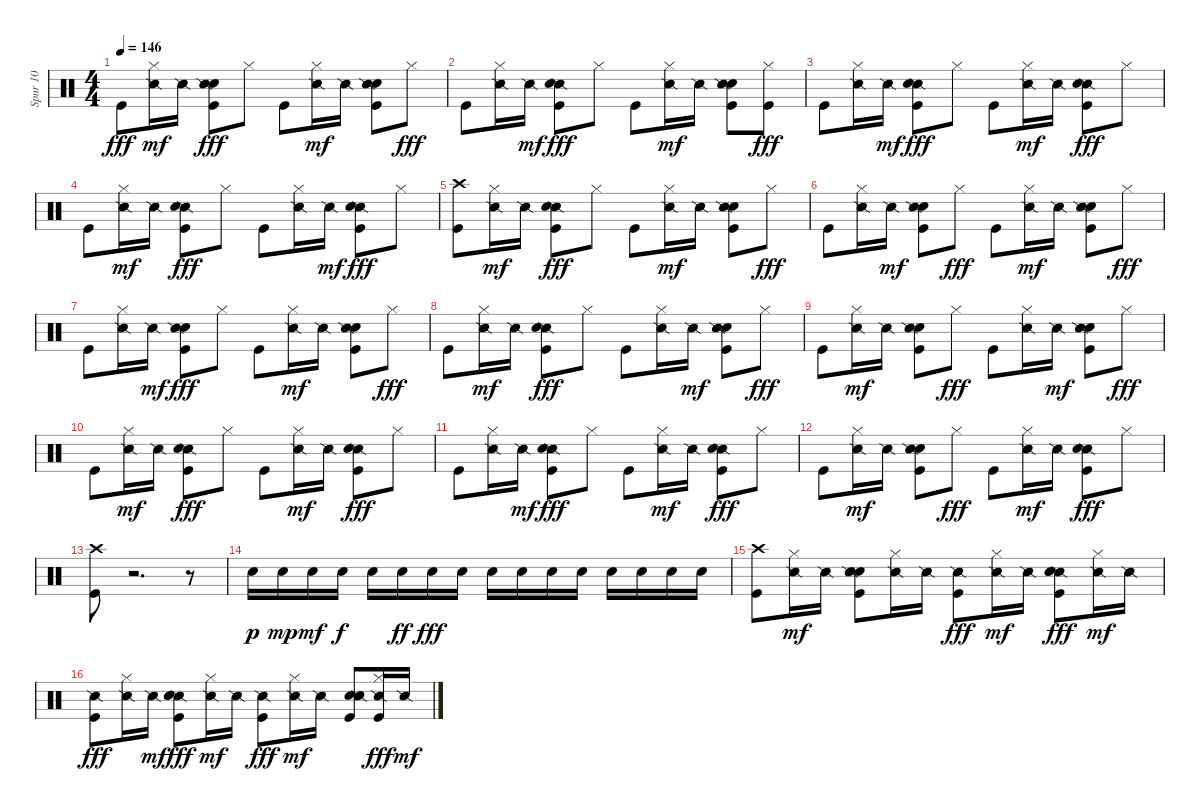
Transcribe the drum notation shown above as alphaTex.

\track ("Spur 10" "Spur 10") {instrument percussion}
\staff {score}
\articulation defaults
\ts (4 4)
\tempo 146
\clef neutral
\ks c "Kick (hit)".8{dy fff}
("Hi-Hat (closed)" "Snare (side stick) 2").16{dy mf} "Snare (side stick) 2".16 ("Hand Clap (hit)" "Snare (side stick) 2" "Kick (hit)").8{dy fff} "Hi-Hat (closed)".8 "Kick (hit)".8 ("Hi-Hat (closed)" "Snare (side stick) 2").16{dy mf} "Snare (side stick) 2".16 ("Hand Clap (hit)" "Kick (hit)" "Snare (side stick) 2").8 "Hi-Hat (closed)".8{dy fff} |
"Kick (hit)".8 ("Snare (side stick) 2" "Hi-Hat (closed)").16 "Snare (side stick) 2".16{dy mf} ("Snare (side stick) 2" "Kick (hit)" "Hand Clap (hit)").8{dy fff} "Hi-Hat (closed)".8 "Kick (hit)".8 ("Hi-Hat (closed)" "Snare (side stick) 2").16{dy mf} "Snare (side stick) 2".16 ("Hand Clap (hit)" "Kick (hit)" "Snare (side stick) 2").8 ("Hi-Hat (closed)" "Kick (hit)").8{dy fff} |
"Kick (hit)".8 ("Snare (side stick) 2" "Hi-Hat (closed)").16 "Snare (side stick) 2".16{dy mf} ("Snare (side stick) 2" "Kick (hit)" "Hand Clap (hit)").8{dy fff} "Hi-Hat (closed)".8 "Kick (hit)".8 ("Hi-Hat (closed)" "Snare (side stick) 2").16{dy mf} "Snare (side stick) 2".16 ("Snare (side stick) 2" "Hand Clap (hit)" "Kick (hit)").8{dy fff} "Hi-Hat (closed)".8 |
"Kick (hit)".8 ("Hi-Hat (closed)" "Snare (side stick) 2").16{dy mf} "Snare (side stick) 2".16 ("Snare (side stick) 2" "Hand Clap (hit)" "Kick (hit)").8{dy fff} "Hi-Hat (closed)".8 "Kick (hit)".8 ("Snare (side stick) 2" "Hi-Hat (closed)").16 "Snare (side stick) 2".16{dy mf} ("Kick (hit)" "Snare (side stick) 2" "Hand Clap (hit)").8{dy fff} "Hi-Hat (closed)".8 |
("Crash high (hit)" "Kick (hit)").8 ("Hi-Hat (closed)" "Snare (side stick) 2").16{dy mf} "Snare (side stick) 2".16 ("Snare (side stick) 2" "Hand Clap (hit)" "Kick (hit)").8{dy fff} "Hi-Hat (closed)".8 "Kick (hit)".8 ("Hi-Hat (closed)" "Snare (side stick) 2").16{dy mf} "Snare (side stick) 2".16 ("Kick (hit)" "Hand Clap (hit)" "Snare (side stick) 2").8 "Hi-Hat (closed)".8{dy fff} |
"Kick (hit)".8 ("Snare (side stick) 2" "Hi-Hat (closed)").16 "Snare (side stick) 2".16{dy mf} ("Kick (hit)" "Hand Clap (hit)" "Snare (side stick) 2").8 "Hi-Hat (closed)".8{dy fff} "Kick (hit)".8 ("Hi-Hat (closed)" "Snare (side stick) 2").16{dy mf} "Snare (side stick) 2".16 ("Hand Clap (hit)" "Kick (hit)" "Snare (side stick) 2").8 "Hi-Hat (closed)".8{dy fff} |
"Kick (hit)".8 ("Snare (side stick) 2" "Hi-Hat (closed)").16 "Snare (side stick) 2".16{dy mf} ("Hand Clap (hit)" "Snare (side stick) 2" "Kick (hit)").8{dy fff} "Hi-Hat (closed)".8 "Kick (hit)".8 ("Hi-Hat (closed)" "Snare (side stick) 2").16{dy mf} "Snare (side stick) 2".16 ("Hand Clap (hit)" "Kick (hit)" "Snare (side stick) 2").8 "Hi-Hat (closed)".8{dy fff} |
"Kick (hit)".8 ("Hi-Hat (closed)" "Snare (side stick) 2").16{dy mf} "Snare (side stick) 2".16 ("Snare (side stick) 2" "Hand Clap (hit)" "Kick (hit)").8{dy fff} "Hi-Hat (closed)".8 "Kick (hit)".8 ("Snare (side stick) 2" "Hi-Hat (closed)").16 "Snare (side stick) 2".16{dy mf} ("Hand Clap (hit)" "Kick (hit)" "Snare (side stick) 2").8 "Hi-Hat (closed)".8{dy fff} |
"Kick (hit)".8 ("Hi-Hat (closed)" "Snare (side stick) 2").16{dy mf} "Snare (side stick) 2".16 ("Hand Clap (hit)" "Kick (hit)" "Snare (side stick) 2").8 "Hi-Hat (closed)".8{dy fff} "Kick (hit)".8 ("Snare (side stick) 2" "Hi-Hat (closed)").16 "Snare (side stick) 2".16{dy mf} ("Kick (hit)" "Hand Clap (hit)" "Snare (side stick) 2").8 "Hi-Hat (closed)".8{dy fff} |
"Kick (hit)".8 ("Hi-Hat (closed)" "Snare (side stick) 2").16{dy mf} "Snare (side stick) 2".16 ("Kick (hit)" "Snare (side stick) 2" "Hand Clap (hit)").8{dy fff} "Hi-Hat (closed)".8 "Kick (hit)".8 ("Hi-Hat (closed)" "Snare (side stick) 2").16{dy mf} "Snare (side stick) 2".16 ("Snare (side stick) 2" "Kick (hit)" "Hand Clap (hit)").8{dy fff} "Hi-Hat (closed)".8 |
"Kick (hit)".8 ("Snare (side stick) 2" "Hi-Hat (closed)").16 "Snare (side stick) 2".16{dy mf} ("Snare (side stick) 2" "Kick (hit)" "Hand Clap (hit)").8{dy fff} "Hi-Hat (closed)".8 "Kick (hit)".8 ("Hi-Hat (closed)" "Snare (side stick) 2").16{dy mf} "Snare (side stick) 2".16 ("Kick (hit)" "Snare (side stick) 2" "Hand Clap (hit)").8{dy fff} "Hi-Hat (closed)".8 |
"Kick (hit)".8 ("Hi-Hat (closed)" "Snare (side stick) 2").16{dy mf} "Snare (side stick) 2".16 ("Kick (hit)" "Hand Clap (hit)" "Snare (side stick) 2").8 "Hi-Hat (closed)".8{dy fff} "Kick (hit)".8 ("Hi-Hat (closed)" "Snare (side stick) 2").16{dy mf} "Snare (side stick) 2".16 ("Snare (side stick) 2" "Kick (hit)" "Hand Clap (hit)").8{dy fff} "Hi-Hat (closed)".8 |
("Crash high (hit)" "Kick (hit)").8 r.2{d} r.8 |
"Snare (hit) 2".16{dy p} "Snare (hit) 2".16{dy mp} "Snare (hit) 2".16{dy mf} "Snare (hit) 2".16{dy f} "Snare (hit) 2".16 "Snare (hit) 2".16{dy ff} "Snare (hit) 2".16{dy fff} "Snare (hit) 2".16 "Snare (hit) 2".16 "Snare (hit) 2".16 "Snare (hit) 2".16 "Snare (hit) 2".16 "Snare (hit) 2".16 "Snare (hit) 2".16 "Snare (hit) 2".16 "Snare (hit) 2".16 |
("Kick (hit)" "Crash high (hit)").8 ("Hi-Hat (closed)" "Snare (side stick) 2").16{dy mf} "Snare (side stick) 2".16 ("Hand Clap (hit)" "Kick (hit)" "Electric Snare (hit)" "Snare (side stick) 2").8 ("Hi-Hat (closed)" "Snare (side stick) 2").16 "Snare (side stick) 2".16 ("Snare (side stick) 2" "Kick (hit)").8{dy fff} ("Hi-Hat (closed)" "Snare (side stick) 2").16{dy mf} "Snare (side stick) 2".16 ("Kick (hit)" "Snare (side stick) 2" "Hand Clap (hit)" "Electric Snare (hit)").8{dy fff} ("Hi-Hat (closed)" "Snare (side stick) 2").16{dy mf} "Snare (side stick) 2".16 |
("Snare (side stick) 2" "Kick (hit)").8{dy fff} ("Snare (side stick) 2" "Hi-Hat (closed)").16 "Snare (side stick) 2".16{dy mf} ("Snare (side stick) 2" "Kick (hit)" "Hand Clap (hit)" "Electric Snare (hit)").8{dy fff} ("Hi-Hat (closed)" "Snare (side stick) 2").16{dy mf} "Snare (side stick) 2".16 ("Snare (side stick) 2" "Kick (hit)").8{dy fff} ("Hi-Hat (closed)" "Snare (side stick) 2").16{dy mf} "Snare (side stick) 2".16 ("Electric Snare (hit)" "Kick (hit)" "Hand Clap (hit)" "Snare (side stick) 2").8 ("Kick (hit)" "Snare (side stick) 2" "Hi-Hat (closed)").16{dy fff} "Snare (side stick) 2".16{dy mf}
